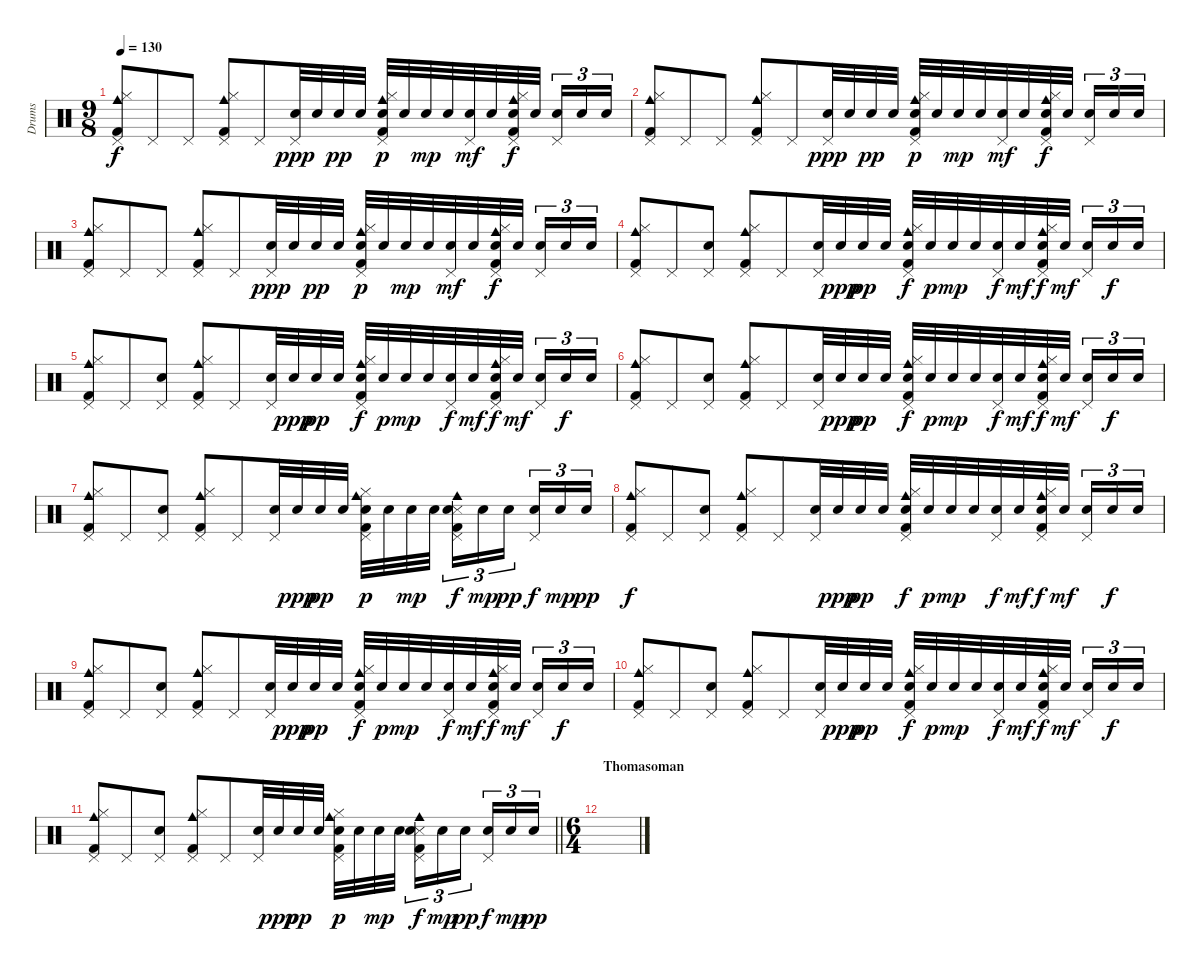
\track ("Drums" "Drums") {instrument percussion}
\staff {score}
\articulation defaults
\ts (9 8)
\tempo 130
\clef neutral
\ks c
("Cowbell medium (hit)" "Pedal Hi-Hat (hit)" "Hi-Hat (closed)" "Kick (hit) 2").8{dy f} "Pedal Hi-Hat (hit)".8 "Pedal Hi-Hat (hit)".8 ("Cowbell medium (hit)" "Pedal Hi-Hat (hit)" "Hi-Hat (closed)" "Kick (hit) 2").8 "Pedal Hi-Hat (hit)".8 ("Pedal Hi-Hat (hit)" "Snare (hit) 2").32{dy ppp} "Snare (hit) 2".32 "Snare (hit) 2".32{dy pp} "Snare (hit) 2".32 ("Hi-Hat (closed)" "Cowbell medium (hit)" "Pedal Hi-Hat (hit)" "Snare (hit) 2" "Kick (hit) 2").32{dy p} "Snare (hit) 2".32 "Snare (hit) 2".32{dy mp} "Snare (hit) 2".32 ("Pedal Hi-Hat (hit)" "Snare (hit) 2").32{dy mf} "Snare (hit) 2".32 ("Hi-Hat (closed)" "Cowbell medium (hit)" "Pedal Hi-Hat (hit)" "Snare (hit) 2" "Kick (hit) 2").32{dy f} "Snare (hit) 2".32{beam splitsecondary} ("Pedal Hi-Hat (hit)" "Snare (hit) 2").16{tu (3 2)} "Snare (hit) 2".16{tu (3 2)} "Snare (hit) 2".16{tu (3 2)} |
("Cowbell medium (hit)" "Pedal Hi-Hat (hit)" "Hi-Hat (closed)" "Kick (hit) 2").8 "Pedal Hi-Hat (hit)".8 "Pedal Hi-Hat (hit)".8 ("Cowbell medium (hit)" "Pedal Hi-Hat (hit)" "Hi-Hat (closed)" "Kick (hit) 2").8 "Pedal Hi-Hat (hit)".8 ("Pedal Hi-Hat (hit)" "Snare (hit) 2").32{dy ppp} "Snare (hit) 2".32 "Snare (hit) 2".32{dy pp} "Snare (hit) 2".32 ("Hi-Hat (closed)" "Cowbell medium (hit)" "Pedal Hi-Hat (hit)" "Snare (hit) 2" "Kick (hit) 2").32{dy p} "Snare (hit) 2".32 "Snare (hit) 2".32{dy mp} "Snare (hit) 2".32 ("Pedal Hi-Hat (hit)" "Snare (hit) 2").32{dy mf} "Snare (hit) 2".32 ("Hi-Hat (closed)" "Cowbell medium (hit)" "Pedal Hi-Hat (hit)" "Snare (hit) 2" "Kick (hit) 2").32{dy f} "Snare (hit) 2".32{beam splitsecondary} ("Pedal Hi-Hat (hit)" "Snare (hit) 2").16{tu (3 2)} "Snare (hit) 2".16{tu (3 2)} "Snare (hit) 2".16{tu (3 2)} |
("Cowbell medium (hit)" "Pedal Hi-Hat (hit)" "Hi-Hat (closed)" "Kick (hit) 2").8 "Pedal Hi-Hat (hit)".8 "Pedal Hi-Hat (hit)".8 ("Cowbell medium (hit)" "Pedal Hi-Hat (hit)" "Hi-Hat (closed)" "Kick (hit) 2").8 "Pedal Hi-Hat (hit)".8 ("Pedal Hi-Hat (hit)" "Snare (hit) 2").32{dy ppp} "Snare (hit) 2".32 "Snare (hit) 2".32{dy pp} "Snare (hit) 2".32 ("Hi-Hat (closed)" "Cowbell medium (hit)" "Pedal Hi-Hat (hit)" "Snare (hit) 2" "Kick (hit) 2").32{dy p} "Snare (hit) 2".32 "Snare (hit) 2".32{dy mp} "Snare (hit) 2".32 ("Pedal Hi-Hat (hit)" "Snare (hit) 2").32{dy mf} "Snare (hit) 2".32 ("Hi-Hat (closed)" "Cowbell medium (hit)" "Pedal Hi-Hat (hit)" "Snare (hit) 2" "Kick (hit) 2").32{dy f} "Snare (hit) 2".32{beam splitsecondary} ("Pedal Hi-Hat (hit)" "Snare (hit) 2").16{tu (3 2)} "Snare (hit) 2".16{tu (3 2)} "Snare (hit) 2".16{tu (3 2)} |
("Cowbell medium (hit)" "Pedal Hi-Hat (hit)" "Hi-Hat (closed)" "Kick (hit) 2").8 "Pedal Hi-Hat (hit)".8 ("Pedal Hi-Hat (hit)" "Snare (hit) 2").8 ("Cowbell medium (hit)" "Pedal Hi-Hat (hit)" "Hi-Hat (closed)" "Kick (hit) 2").8 "Pedal Hi-Hat (hit)".8 ("Pedal Hi-Hat (hit)" "Snare (hit) 2").32 "Snare (hit) 2".32{dy ppp} "Snare (hit) 2".32{dy pp} "Snare (hit) 2".32 ("Hi-Hat (closed)" "Cowbell medium (hit)" "Pedal Hi-Hat (hit)" "Snare (hit) 2" "Kick (hit) 2").32{dy f} "Snare (hit) 2".32{dy p} "Snare (hit) 2".32{dy mp} "Snare (hit) 2".32 ("Pedal Hi-Hat (hit)" "Snare (hit) 2").32{dy f} "Snare (hit) 2".32{dy mf} ("Hi-Hat (closed)" "Cowbell medium (hit)" "Pedal Hi-Hat (hit)" "Snare (hit) 2" "Kick (hit) 2").32{dy f} "Snare (hit) 2".32{dy mf beam splitsecondary} ("Pedal Hi-Hat (hit)" "Snare (hit) 2").16{tu (3 2)} "Snare (hit) 2".16{tu (3 2) dy f} "Snare (hit) 2".16{tu (3 2)} |
("Cowbell medium (hit)" "Pedal Hi-Hat (hit)" "Hi-Hat (closed)" "Kick (hit) 2").8 "Pedal Hi-Hat (hit)".8 ("Pedal Hi-Hat (hit)" "Snare (hit) 2").8 ("Cowbell medium (hit)" "Pedal Hi-Hat (hit)" "Hi-Hat (closed)" "Kick (hit) 2").8 "Pedal Hi-Hat (hit)".8 ("Pedal Hi-Hat (hit)" "Snare (hit) 2").32 "Snare (hit) 2".32{dy ppp} "Snare (hit) 2".32{dy pp} "Snare (hit) 2".32 ("Hi-Hat (closed)" "Cowbell medium (hit)" "Pedal Hi-Hat (hit)" "Snare (hit) 2" "Kick (hit) 2").32{dy f} "Snare (hit) 2".32{dy p} "Snare (hit) 2".32{dy mp} "Snare (hit) 2".32 ("Pedal Hi-Hat (hit)" "Snare (hit) 2").32{dy f} "Snare (hit) 2".32{dy mf} ("Hi-Hat (closed)" "Cowbell medium (hit)" "Pedal Hi-Hat (hit)" "Snare (hit) 2" "Kick (hit) 2").32{dy f} "Snare (hit) 2".32{dy mf beam splitsecondary} ("Pedal Hi-Hat (hit)" "Snare (hit) 2").16{tu (3 2)} "Snare (hit) 2".16{tu (3 2) dy f} "Snare (hit) 2".16{tu (3 2)} |
("Cowbell medium (hit)" "Pedal Hi-Hat (hit)" "Hi-Hat (closed)" "Kick (hit) 2").8 "Pedal Hi-Hat (hit)".8 ("Pedal Hi-Hat (hit)" "Snare (hit) 2").8 ("Cowbell medium (hit)" "Pedal Hi-Hat (hit)" "Hi-Hat (closed)" "Kick (hit) 2").8 "Pedal Hi-Hat (hit)".8 ("Pedal Hi-Hat (hit)" "Snare (hit) 2").32 "Snare (hit) 2".32{dy ppp} "Snare (hit) 2".32{dy pp} "Snare (hit) 2".32 ("Hi-Hat (closed)" "Cowbell medium (hit)" "Pedal Hi-Hat (hit)" "Snare (hit) 2" "Kick (hit) 2").32{dy f} "Snare (hit) 2".32{dy p} "Snare (hit) 2".32{dy mp} "Snare (hit) 2".32 ("Pedal Hi-Hat (hit)" "Snare (hit) 2").32{dy f} "Snare (hit) 2".32{dy mf} ("Hi-Hat (closed)" "Cowbell medium (hit)" "Pedal Hi-Hat (hit)" "Snare (hit) 2" "Kick (hit) 2").32{dy f} "Snare (hit) 2".32{dy mf beam splitsecondary} ("Pedal Hi-Hat (hit)" "Snare (hit) 2").16{tu (3 2)} "Snare (hit) 2".16{tu (3 2) dy f} "Snare (hit) 2".16{tu (3 2)} |
("Cowbell medium (hit)" "Pedal Hi-Hat (hit)" "Hi-Hat (closed)" "Kick (hit) 2").8 "Pedal Hi-Hat (hit)".8 ("Pedal Hi-Hat (hit)" "Snare (hit) 2").8 ("Cowbell medium (hit)" "Pedal Hi-Hat (hit)" "Hi-Hat (closed)" "Kick (hit) 2").8 "Pedal Hi-Hat (hit)".8 ("Pedal Hi-Hat (hit)" "Snare (hit) 2").32 "Snare (hit) 2".32{dy ppp} "Snare (hit) 2".32{dy pp} "Snare (hit) 2".32 ("Hi-Hat (closed)" "Cowbell medium (hit)" "Pedal Hi-Hat (hit)" "Snare (hit) 2" "Kick (hit) 2").32{dy p} "Snare (hit) 2".32 "Snare (hit) 2".32{dy mp} "Snare (hit) 2".32{beam splitsecondary} ("Snare (side stick) 3" "Cowbell medium (hit)" "Pedal Hi-Hat (hit)" "Snare (hit) 2" "Kick (hit) 2").16{tu (3 2) dy f} "Snare (hit) 2".16{tu (3 2) dy mp} "Snare (hit) 2".16{tu (3 2) dy pp beam splitsecondary} ("Pedal Hi-Hat (hit)" "Snare (hit) 2").16{tu (3 2) dy f} "Snare (hit) 2".16{tu (3 2) dy mp} "Snare (hit) 2".16{tu (3 2) dy pp} |
("Cowbell medium (hit)" "Pedal Hi-Hat (hit)" "Hi-Hat (closed)" "Kick (hit) 2").8{dy f} "Pedal Hi-Hat (hit)".8 ("Pedal Hi-Hat (hit)" "Snare (hit) 2").8 ("Cowbell medium (hit)" "Pedal Hi-Hat (hit)" "Hi-Hat (closed)" "Kick (hit) 2").8 "Pedal Hi-Hat (hit)".8 ("Pedal Hi-Hat (hit)" "Snare (hit) 2").32 "Snare (hit) 2".32{dy ppp} "Snare (hit) 2".32{dy pp} "Snare (hit) 2".32 ("Hi-Hat (closed)" "Cowbell medium (hit)" "Pedal Hi-Hat (hit)" "Snare (hit) 2" "Kick (hit) 2").32{dy f} "Snare (hit) 2".32{dy p} "Snare (hit) 2".32{dy mp} "Snare (hit) 2".32 ("Pedal Hi-Hat (hit)" "Snare (hit) 2").32{dy f} "Snare (hit) 2".32{dy mf} ("Hi-Hat (closed)" "Cowbell medium (hit)" "Pedal Hi-Hat (hit)" "Snare (hit) 2" "Kick (hit) 2").32{dy f} "Snare (hit) 2".32{dy mf beam splitsecondary} ("Pedal Hi-Hat (hit)" "Snare (hit) 2").16{tu (3 2)} "Snare (hit) 2".16{tu (3 2) dy f} "Snare (hit) 2".16{tu (3 2)} |
("Cowbell medium (hit)" "Pedal Hi-Hat (hit)" "Hi-Hat (closed)" "Kick (hit) 2").8 "Pedal Hi-Hat (hit)".8 ("Pedal Hi-Hat (hit)" "Snare (hit) 2").8 ("Cowbell medium (hit)" "Pedal Hi-Hat (hit)" "Hi-Hat (closed)" "Kick (hit) 2").8 "Pedal Hi-Hat (hit)".8 ("Pedal Hi-Hat (hit)" "Snare (hit) 2").32 "Snare (hit) 2".32{dy ppp} "Snare (hit) 2".32{dy pp} "Snare (hit) 2".32 ("Hi-Hat (closed)" "Cowbell medium (hit)" "Pedal Hi-Hat (hit)" "Snare (hit) 2" "Kick (hit) 2").32{dy f} "Snare (hit) 2".32{dy p} "Snare (hit) 2".32{dy mp} "Snare (hit) 2".32 ("Pedal Hi-Hat (hit)" "Snare (hit) 2").32{dy f} "Snare (hit) 2".32{dy mf} ("Hi-Hat (closed)" "Cowbell medium (hit)" "Pedal Hi-Hat (hit)" "Snare (hit) 2" "Kick (hit) 2").32{dy f} "Snare (hit) 2".32{dy mf beam splitsecondary} ("Pedal Hi-Hat (hit)" "Snare (hit) 2").16{tu (3 2)} "Snare (hit) 2".16{tu (3 2) dy f} "Snare (hit) 2".16{tu (3 2)} |
("Cowbell medium (hit)" "Pedal Hi-Hat (hit)" "Hi-Hat (closed)" "Kick (hit) 2").8 "Pedal Hi-Hat (hit)".8 ("Pedal Hi-Hat (hit)" "Snare (hit) 2").8 ("Cowbell medium (hit)" "Pedal Hi-Hat (hit)" "Hi-Hat (closed)" "Kick (hit) 2").8 "Pedal Hi-Hat (hit)".8 ("Pedal Hi-Hat (hit)" "Snare (hit) 2").32 "Snare (hit) 2".32{dy ppp} "Snare (hit) 2".32{dy pp} "Snare (hit) 2".32 ("Hi-Hat (closed)" "Cowbell medium (hit)" "Pedal Hi-Hat (hit)" "Snare (hit) 2" "Kick (hit) 2").32{dy f} "Snare (hit) 2".32{dy p} "Snare (hit) 2".32{dy mp} "Snare (hit) 2".32 ("Pedal Hi-Hat (hit)" "Snare (hit) 2").32{dy f} "Snare (hit) 2".32{dy mf} ("Hi-Hat (closed)" "Cowbell medium (hit)" "Pedal Hi-Hat (hit)" "Snare (hit) 2" "Kick (hit) 2").32{dy f} "Snare (hit) 2".32{dy mf beam splitsecondary} ("Pedal Hi-Hat (hit)" "Snare (hit) 2").16{tu (3 2)} "Snare (hit) 2".16{tu (3 2) dy f} "Snare (hit) 2".16{tu (3 2)} |
\barLineRight lightlight
("Cowbell medium (hit)" "Pedal Hi-Hat (hit)" "Hi-Hat (closed)" "Kick (hit) 2").8 "Pedal Hi-Hat (hit)".8 ("Pedal Hi-Hat (hit)" "Snare (hit) 2").8 ("Cowbell medium (hit)" "Pedal Hi-Hat (hit)" "Hi-Hat (closed)" "Kick (hit) 2").8 "Pedal Hi-Hat (hit)".8 ("Pedal Hi-Hat (hit)" "Snare (hit) 2").32 "Snare (hit) 2".32{dy ppp} "Snare (hit) 2".32{dy pp} "Snare (hit) 2".32 ("Hi-Hat (closed)" "Cowbell medium (hit)" "Pedal Hi-Hat (hit)" "Snare (hit) 2" "Kick (hit) 2").32{dy p} "Snare (hit) 2".32 "Snare (hit) 2".32{dy mp} "Snare (hit) 2".32{beam splitsecondary} ("Snare (side stick) 3" "Cowbell medium (hit)" "Pedal Hi-Hat (hit)" "Snare (hit) 2" "Kick (hit) 2").16{tu (3 2) dy f} "Snare (hit) 2".16{tu (3 2) dy mp} "Snare (hit) 2".16{tu (3 2) dy pp beam splitsecondary} ("Pedal Hi-Hat (hit)" "Snare (hit) 2").16{tu (3 2) dy f} "Snare (hit) 2".16{tu (3 2) dy mp} "Snare (hit) 2".16{tu (3 2) dy pp} |
\ts (6 4)
\section ("" "Thomasoman")
